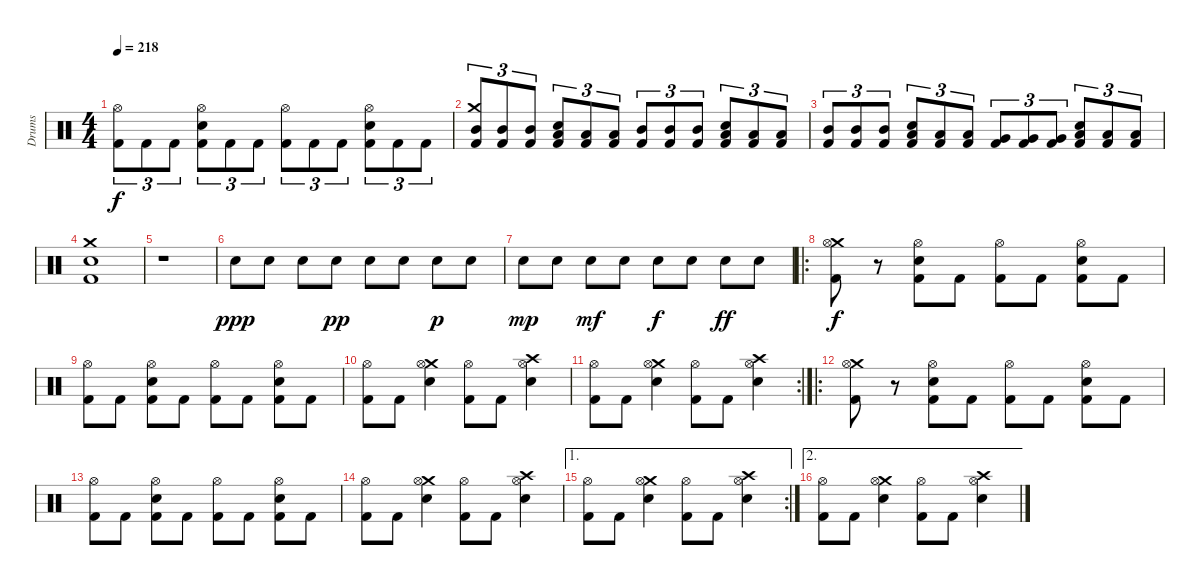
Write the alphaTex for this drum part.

\track ("Drums" "Drums") {instrument percussion}
\staff {score}
\articulation defaults
\ts (4 4)
\tempo 218
\clef neutral
\ks c
("Hi-Hat (open)" "Kick (hit) 2").8{tu (3 2) dy f} "Kick (hit) 2".8{tu (3 2)} "Kick (hit) 2".8{tu (3 2)} ("Hi-Hat (open)" "Electric Snare (hit)" "Kick (hit) 2").8{tu (3 2)} "Kick (hit) 2".8{tu (3 2)} "Kick (hit) 2".8{tu (3 2)} ("Hi-Hat (open)" "Kick (hit) 2").8{tu (3 2)} "Kick (hit) 2".8{tu (3 2)} "Kick (hit) 2".8{tu (3 2)} ("Hi-Hat (open)" "Electric Snare (hit)" "Kick (hit) 2").8{tu (3 2)} "Kick (hit) 2".8{tu (3 2)} "Kick (hit) 2".8{tu (3 2)} |
("Crash medium (hit)" "Mid Tom (hit)" "Kick (hit) 2").8{tu (3 2)} ("Mid Tom (hit)" "Kick (hit) 2").8{tu (3 2)} ("Mid Tom (hit)" "Kick (hit) 2").8{tu (3 2)} ("Low Tom (hit)" "Electric Snare (hit)" "Kick (hit) 2").8{tu (3 2)} ("Low Tom (hit)" "Kick (hit) 2").8{tu (3 2)} ("Low Tom (hit)" "Kick (hit) 2").8{tu (3 2)} ("Mid Tom (hit)" "Kick (hit) 2").8{tu (3 2)} ("Mid Tom (hit)" "Kick (hit) 2").8{tu (3 2)} ("Mid Tom (hit)" "Kick (hit) 2").8{tu (3 2)} ("Low Tom (hit)" "Electric Snare (hit)" "Kick (hit) 2").8{tu (3 2)} ("Low Tom (hit)" "Kick (hit) 2").8{tu (3 2)} ("Low Tom (hit)" "Kick (hit) 2").8{tu (3 2)} |
("Mid Tom (hit)" "Kick (hit) 2").8{tu (3 2)} ("Mid Tom (hit)" "Kick (hit) 2").8{tu (3 2)} ("Mid Tom (hit)" "Kick (hit) 2").8{tu (3 2)} ("Low Tom (hit)" "Electric Snare (hit)" "Kick (hit) 2").8{tu (3 2)} ("Low Tom (hit)" "Kick (hit) 2").8{tu (3 2)} ("Low Tom (hit)" "Kick (hit) 2").8{tu (3 2)} ("Very Low Tom (hit)" "Kick (hit) 2").8{tu (3 2)} ("Very Low Tom (hit)" "Kick (hit) 2").8{tu (3 2)} ("Very Low Tom (hit)" "Kick (hit) 2").8{tu (3 2)} ("Low Floor Tom (hit)" "Electric Snare (hit)" "Kick (hit) 2").8{tu (3 2)} ("Low Floor Tom (hit)" "Kick (hit) 2").8{tu (3 2)} ("Low Floor Tom (hit)" "Kick (hit) 2").8{tu (3 2)} |
("Crash medium (hit)" "Electric Snare (hit)" "Kick (hit) 2").1 |
r.1 |
"Electric Snare (hit)".8{dy ppp} "Electric Snare (hit)".8 "Electric Snare (hit)".8 "Electric Snare (hit)".8{dy pp} "Electric Snare (hit)".8 "Electric Snare (hit)".8 "Electric Snare (hit)".8{dy p} "Electric Snare (hit)".8 |
"Electric Snare (hit)".8{dy mp} "Electric Snare (hit)".8 "Electric Snare (hit)".8{dy mf} "Electric Snare (hit)".8 "Electric Snare (hit)".8{dy f} "Electric Snare (hit)".8 "Electric Snare (hit)".8{dy ff} "Electric Snare (hit)".8 |
\ro
("Crash medium (hit)" "Hi-Hat (open)" "Kick (hit) 2").8{dy f} r.8 ("Hi-Hat (open)" "Electric Snare (hit)" "Kick (hit) 2").8 "Kick (hit) 2".8 ("Hi-Hat (open)" "Kick (hit) 2").8 "Kick (hit) 2".8 ("Hi-Hat (open)" "Electric Snare (hit)" "Kick (hit) 2").8 "Kick (hit) 2".8 |
("Hi-Hat (open)" "Kick (hit) 2").8 "Kick (hit) 2".8 ("Hi-Hat (open)" "Electric Snare (hit)" "Kick (hit) 2").8 "Kick (hit) 2".8 ("Hi-Hat (open)" "Kick (hit) 2").8 "Kick (hit) 2".8 ("Hi-Hat (open)" "Electric Snare (hit)" "Kick (hit) 2").8 "Kick (hit) 2".8 |
("Hi-Hat (open)" "Kick (hit) 2").8 "Kick (hit) 2".8 ("Crash medium (hit)" "Hi-Hat (open)" "Electric Snare (hit)").4 ("Hi-Hat (open)" "Kick (hit) 2").8 "Kick (hit) 2".8 ("Crash high (hit)" "Hi-Hat (open)" "Electric Snare (hit)").4 |
\rc 2
("Hi-Hat (open)" "Kick (hit) 2").8 "Kick (hit) 2".8 ("Crash medium (hit)" "Hi-Hat (open)" "Electric Snare (hit)").4 ("Hi-Hat (open)" "Kick (hit) 2").8 "Kick (hit) 2".8 ("Crash high (hit)" "Hi-Hat (open)" "Electric Snare (hit)").4 |
\ro
("Crash medium (hit)" "Hi-Hat (open)" "Kick (hit) 2").8 r.8 ("Hi-Hat (open)" "Electric Snare (hit)" "Kick (hit) 2").8 "Kick (hit) 2".8 ("Hi-Hat (open)" "Kick (hit) 2").8 "Kick (hit) 2".8 ("Hi-Hat (open)" "Electric Snare (hit)" "Kick (hit) 2").8 "Kick (hit) 2".8 |
("Hi-Hat (open)" "Kick (hit) 2").8 "Kick (hit) 2".8 ("Hi-Hat (open)" "Electric Snare (hit)" "Kick (hit) 2").8 "Kick (hit) 2".8 ("Hi-Hat (open)" "Kick (hit) 2").8 "Kick (hit) 2".8 ("Hi-Hat (open)" "Electric Snare (hit)" "Kick (hit) 2").8 "Kick (hit) 2".8 |
("Hi-Hat (open)" "Kick (hit) 2").8 "Kick (hit) 2".8 ("Crash medium (hit)" "Hi-Hat (open)" "Electric Snare (hit)").4 ("Hi-Hat (open)" "Kick (hit) 2").8 "Kick (hit) 2".8 ("Crash high (hit)" "Hi-Hat (open)" "Electric Snare (hit)").4 |
\ae 1
\rc 2
("Hi-Hat (open)" "Kick (hit) 2").8 "Kick (hit) 2".8 ("Crash medium (hit)" "Hi-Hat (open)" "Electric Snare (hit)").4 ("Hi-Hat (open)" "Kick (hit) 2").8 "Kick (hit) 2".8 ("Crash high (hit)" "Hi-Hat (open)" "Electric Snare (hit)").4 |
\ae 2
("Hi-Hat (open)" "Kick (hit) 2").8 "Kick (hit) 2".8 ("Crash medium (hit)" "Hi-Hat (open)" "Electric Snare (hit)").4 ("Hi-Hat (open)" "Kick (hit) 2").8 "Kick (hit) 2".8 ("Crash high (hit)" "Hi-Hat (open)" "Electric Snare (hit)").4
